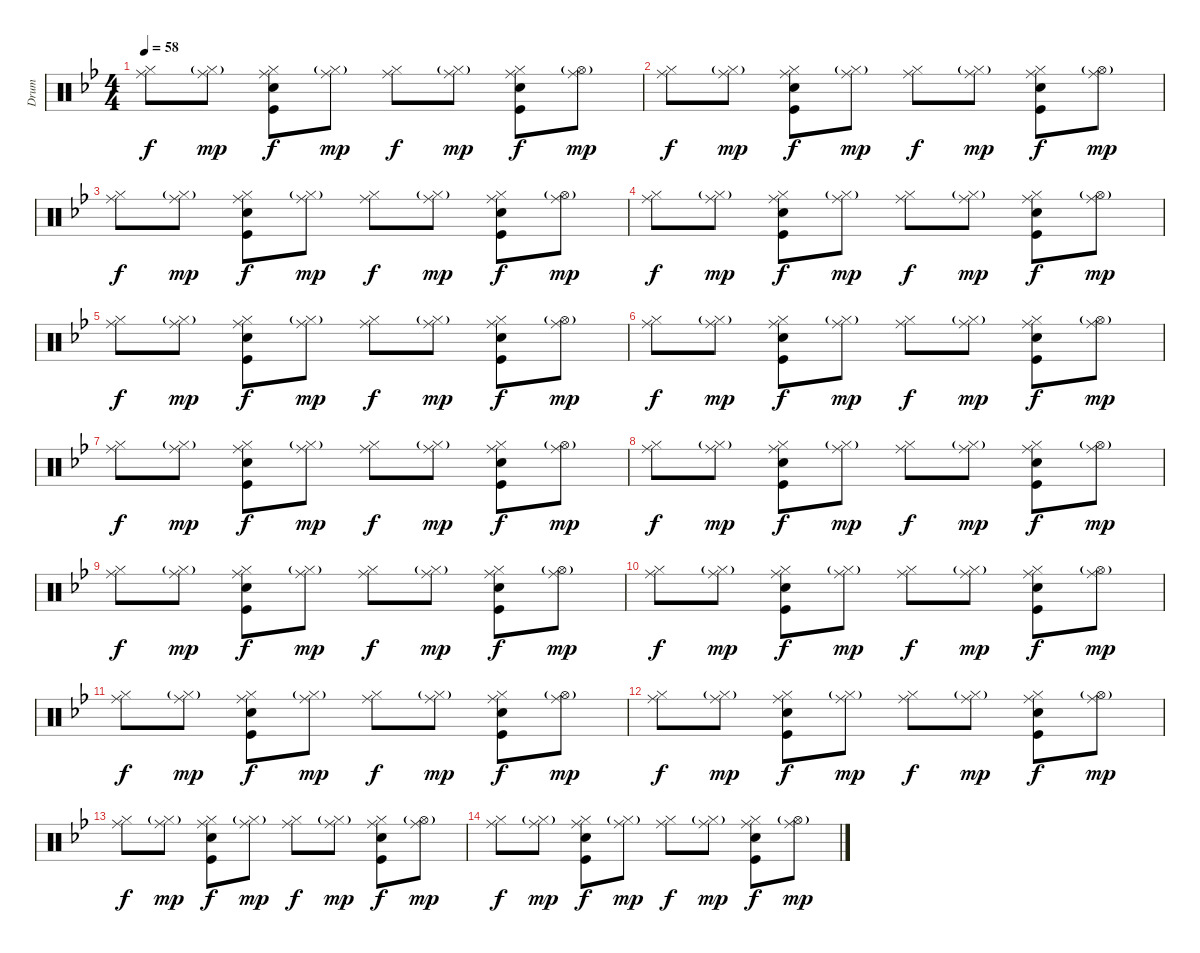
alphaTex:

\track ("Drum" "Drum") {instrument percussion}
\staff {score}
\articulation defaults
\ts (4 4)
\tempo 58
\clef neutral
\ks bb
("Ride (middle)" "Hi-Hat (closed)").8{dy f} ("Ride (middle)" "Hi-Hat (closed)"{g}).8{dy mp} ("Ride (middle)" "Hi-Hat (closed)" "Kick (hit)" "Snare (hit) 2").8{dy f} ("Ride (middle)" "Hi-Hat (closed)"{g}).8{dy mp} ("Ride (middle)" "Hi-Hat (closed)").8{dy f} ("Ride (middle)" "Hi-Hat (closed)"{g}).8{dy mp} ("Ride (middle)" "Hi-Hat (closed)" "Kick (hit)" "Snare (hit) 2").8{dy f} ("Ride (middle)" "Hi-Hat (open)"{g}).8{dy mp} |
("Ride (middle)" "Hi-Hat (closed)").8{dy f} ("Ride (middle)" "Hi-Hat (closed)"{g}).8{dy mp} ("Ride (middle)" "Hi-Hat (closed)" "Kick (hit)" "Snare (hit) 2").8{dy f} ("Ride (middle)" "Hi-Hat (closed)"{g}).8{dy mp} ("Ride (middle)" "Hi-Hat (closed)").8{dy f} ("Ride (middle)" "Hi-Hat (closed)"{g}).8{dy mp} ("Ride (middle)" "Hi-Hat (closed)" "Kick (hit)" "Snare (hit) 2").8{dy f} ("Ride (middle)" "Hi-Hat (open)"{g}).8{dy mp} |
("Ride (middle)" "Hi-Hat (closed)").8{dy f} ("Ride (middle)" "Hi-Hat (closed)"{g}).8{dy mp} ("Ride (middle)" "Hi-Hat (closed)" "Kick (hit)" "Snare (hit) 2").8{dy f} ("Ride (middle)" "Hi-Hat (closed)"{g}).8{dy mp} ("Ride (middle)" "Hi-Hat (closed)").8{dy f} ("Ride (middle)" "Hi-Hat (closed)"{g}).8{dy mp} ("Ride (middle)" "Hi-Hat (closed)" "Kick (hit)" "Snare (hit) 2").8{dy f} ("Ride (middle)" "Hi-Hat (open)"{g}).8{dy mp} |
("Ride (middle)" "Hi-Hat (closed)").8{dy f} ("Ride (middle)" "Hi-Hat (closed)"{g}).8{dy mp} ("Ride (middle)" "Hi-Hat (closed)" "Kick (hit)" "Snare (hit) 2").8{dy f} ("Ride (middle)" "Hi-Hat (closed)"{g}).8{dy mp} ("Ride (middle)" "Hi-Hat (closed)").8{dy f} ("Ride (middle)" "Hi-Hat (closed)"{g}).8{dy mp} ("Ride (middle)" "Hi-Hat (closed)" "Kick (hit)" "Snare (hit) 2").8{dy f} ("Ride (middle)" "Hi-Hat (open)"{g}).8{dy mp} |
("Ride (middle)" "Hi-Hat (closed)").8{dy f} ("Ride (middle)" "Hi-Hat (closed)"{g}).8{dy mp} ("Ride (middle)" "Hi-Hat (closed)" "Kick (hit)" "Snare (hit) 2").8{dy f} ("Ride (middle)" "Hi-Hat (closed)"{g}).8{dy mp} ("Ride (middle)" "Hi-Hat (closed)").8{dy f} ("Ride (middle)" "Hi-Hat (closed)"{g}).8{dy mp} ("Ride (middle)" "Hi-Hat (closed)" "Kick (hit)" "Snare (hit) 2").8{dy f} ("Ride (middle)" "Hi-Hat (open)"{g}).8{dy mp} |
("Ride (middle)" "Hi-Hat (closed)").8{dy f} ("Ride (middle)" "Hi-Hat (closed)"{g}).8{dy mp} ("Ride (middle)" "Hi-Hat (closed)" "Kick (hit)" "Snare (hit) 2").8{dy f} ("Ride (middle)" "Hi-Hat (closed)"{g}).8{dy mp} ("Ride (middle)" "Hi-Hat (closed)").8{dy f} ("Ride (middle)" "Hi-Hat (closed)"{g}).8{dy mp} ("Ride (middle)" "Hi-Hat (closed)" "Kick (hit)" "Snare (hit) 2").8{dy f} ("Ride (middle)" "Hi-Hat (open)"{g}).8{dy mp} |
("Ride (middle)" "Hi-Hat (closed)").8{dy f} ("Ride (middle)" "Hi-Hat (closed)"{g}).8{dy mp} ("Ride (middle)" "Hi-Hat (closed)" "Kick (hit)" "Snare (hit) 2").8{dy f} ("Ride (middle)" "Hi-Hat (closed)"{g}).8{dy mp} ("Ride (middle)" "Hi-Hat (closed)").8{dy f} ("Ride (middle)" "Hi-Hat (closed)"{g}).8{dy mp} ("Ride (middle)" "Hi-Hat (closed)" "Kick (hit)" "Snare (hit) 2").8{dy f} ("Ride (middle)" "Hi-Hat (open)"{g}).8{dy mp} |
("Ride (middle)" "Hi-Hat (closed)").8{dy f} ("Ride (middle)" "Hi-Hat (closed)"{g}).8{dy mp} ("Ride (middle)" "Hi-Hat (closed)" "Kick (hit)" "Snare (hit) 2").8{dy f} ("Ride (middle)" "Hi-Hat (closed)"{g}).8{dy mp} ("Ride (middle)" "Hi-Hat (closed)").8{dy f} ("Ride (middle)" "Hi-Hat (closed)"{g}).8{dy mp} ("Ride (middle)" "Hi-Hat (closed)" "Kick (hit)" "Snare (hit) 2").8{dy f} ("Ride (middle)" "Hi-Hat (open)"{g}).8{dy mp} |
("Ride (middle)" "Hi-Hat (closed)").8{dy f} ("Ride (middle)" "Hi-Hat (closed)"{g}).8{dy mp} ("Ride (middle)" "Hi-Hat (closed)" "Kick (hit)" "Snare (hit) 2").8{dy f} ("Ride (middle)" "Hi-Hat (closed)"{g}).8{dy mp} ("Ride (middle)" "Hi-Hat (closed)").8{dy f} ("Ride (middle)" "Hi-Hat (closed)"{g}).8{dy mp} ("Ride (middle)" "Hi-Hat (closed)" "Kick (hit)" "Snare (hit) 2").8{dy f} ("Ride (middle)" "Hi-Hat (open)"{g}).8{dy mp} |
("Ride (middle)" "Hi-Hat (closed)").8{dy f} ("Ride (middle)" "Hi-Hat (closed)"{g}).8{dy mp} ("Ride (middle)" "Hi-Hat (closed)" "Kick (hit)" "Snare (hit) 2").8{dy f} ("Ride (middle)" "Hi-Hat (closed)"{g}).8{dy mp} ("Ride (middle)" "Hi-Hat (closed)").8{dy f} ("Ride (middle)" "Hi-Hat (closed)"{g}).8{dy mp} ("Ride (middle)" "Hi-Hat (closed)" "Kick (hit)" "Snare (hit) 2").8{dy f} ("Ride (middle)" "Hi-Hat (open)"{g}).8{dy mp} |
("Ride (middle)" "Hi-Hat (closed)").8{dy f} ("Ride (middle)" "Hi-Hat (closed)"{g}).8{dy mp} ("Ride (middle)" "Hi-Hat (closed)" "Kick (hit)" "Snare (hit) 2").8{dy f} ("Ride (middle)" "Hi-Hat (closed)"{g}).8{dy mp} ("Ride (middle)" "Hi-Hat (closed)").8{dy f} ("Ride (middle)" "Hi-Hat (closed)"{g}).8{dy mp} ("Ride (middle)" "Hi-Hat (closed)" "Kick (hit)" "Snare (hit) 2").8{dy f} ("Ride (middle)" "Hi-Hat (open)"{g}).8{dy mp} |
("Ride (middle)" "Hi-Hat (closed)").8{dy f} ("Ride (middle)" "Hi-Hat (closed)"{g}).8{dy mp} ("Ride (middle)" "Hi-Hat (closed)" "Kick (hit)" "Snare (hit) 2").8{dy f} ("Ride (middle)" "Hi-Hat (closed)"{g}).8{dy mp} ("Ride (middle)" "Hi-Hat (closed)").8{dy f} ("Ride (middle)" "Hi-Hat (closed)"{g}).8{dy mp} ("Ride (middle)" "Hi-Hat (closed)" "Kick (hit)" "Snare (hit) 2").8{dy f} ("Ride (middle)" "Hi-Hat (open)"{g}).8{dy mp} |
("Ride (middle)" "Hi-Hat (closed)").8{dy f} ("Ride (middle)" "Hi-Hat (closed)"{g}).8{dy mp} ("Ride (middle)" "Hi-Hat (closed)" "Kick (hit)" "Snare (hit) 2").8{dy f} ("Ride (middle)" "Hi-Hat (closed)"{g}).8{dy mp} ("Ride (middle)" "Hi-Hat (closed)").8{dy f} ("Ride (middle)" "Hi-Hat (closed)"{g}).8{dy mp} ("Ride (middle)" "Hi-Hat (closed)" "Kick (hit)" "Snare (hit) 2").8{dy f} ("Ride (middle)" "Hi-Hat (open)"{g}).8{dy mp} |
("Ride (middle)" "Hi-Hat (closed)").8{dy f} ("Ride (middle)" "Hi-Hat (closed)"{g}).8{dy mp} ("Ride (middle)" "Hi-Hat (closed)" "Kick (hit)" "Snare (hit) 2").8{dy f} ("Ride (middle)" "Hi-Hat (closed)"{g}).8{dy mp} ("Ride (middle)" "Hi-Hat (closed)").8{dy f} ("Ride (middle)" "Hi-Hat (closed)"{g}).8{dy mp} ("Ride (middle)" "Hi-Hat (closed)" "Kick (hit)" "Snare (hit) 2").8{dy f} ("Ride (middle)" "Hi-Hat (open)"{g}).8{dy mp}
